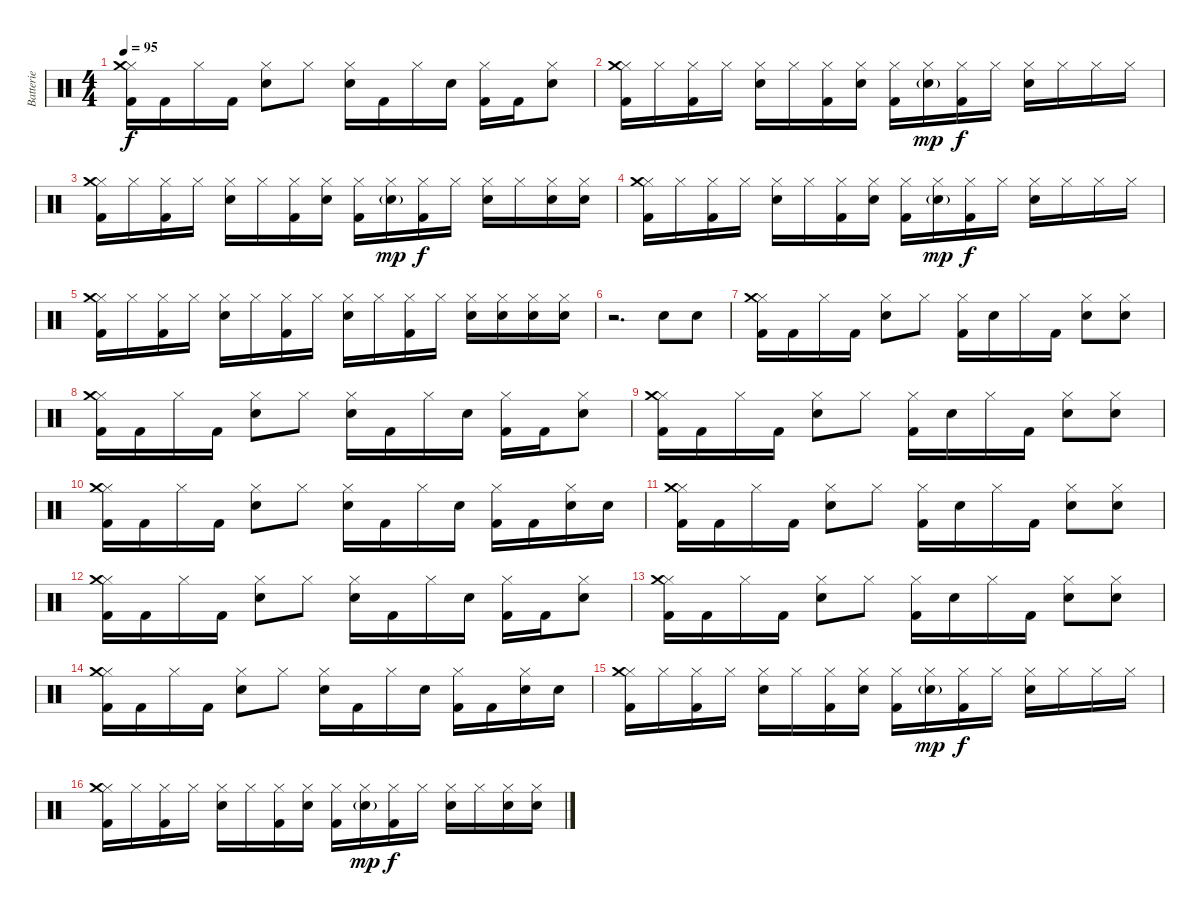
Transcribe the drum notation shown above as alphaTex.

\track ("Batterie" "Batterie") {instrument percussion}
\staff {score}
\articulation defaults
\ts (4 4)
\tempo 95
\clef neutral
\ks c
("Hi-Hat (closed)" "Crash medium (hit)" "Kick (hit) 2").16{dy f} "Kick (hit) 2".16 "Hi-Hat (closed)".16 "Kick (hit) 2".16 ("Hi-Hat (closed)" "Electric Snare (hit)").8 "Hi-Hat (closed)".8 ("Hi-Hat (closed)" "Electric Snare (hit)").16 "Kick (hit) 2".16 "Hi-Hat (closed)".16 "Electric Snare (hit)".16 ("Hi-Hat (closed)" "Kick (hit) 2").16 "Kick (hit) 2".16 ("Hi-Hat (closed)" "Electric Snare (hit)").8 |
("Hi-Hat (closed)" "Crash medium (hit)" "Kick (hit) 2").16 "Hi-Hat (closed)".16 ("Hi-Hat (closed)" "Kick (hit) 2").16 "Hi-Hat (closed)".16 ("Hi-Hat (closed)" "Electric Snare (hit)").16 "Hi-Hat (closed)".16 ("Hi-Hat (closed)" "Kick (hit) 2").16 ("Hi-Hat (closed)" "Electric Snare (hit)").16 ("Hi-Hat (closed)" "Kick (hit) 2").16 ("Hi-Hat (closed)" "Electric Snare (hit)"{g}).16{dy mp} ("Hi-Hat (closed)" "Kick (hit) 2").16{dy f} "Hi-Hat (closed)".16 ("Hi-Hat (closed)" "Electric Snare (hit)").16 "Hi-Hat (closed)".16 "Hi-Hat (closed)".16 "Hi-Hat (closed)".16 |
("Hi-Hat (closed)" "Crash medium (hit)" "Kick (hit) 2").16 "Hi-Hat (closed)".16 ("Hi-Hat (closed)" "Kick (hit) 2").16 "Hi-Hat (closed)".16 ("Hi-Hat (closed)" "Electric Snare (hit)").16 "Hi-Hat (closed)".16 ("Hi-Hat (closed)" "Kick (hit) 2").16 ("Hi-Hat (closed)" "Electric Snare (hit)").16 ("Hi-Hat (closed)" "Kick (hit) 2").16 ("Hi-Hat (closed)" "Electric Snare (hit)"{g}).16{dy mp} ("Hi-Hat (closed)" "Kick (hit) 2").16{dy f} "Hi-Hat (closed)".16 ("Hi-Hat (closed)" "Electric Snare (hit)").16 "Hi-Hat (closed)".16 ("Hi-Hat (closed)" "Electric Snare (hit)").16 ("Hi-Hat (closed)" "Electric Snare (hit)").16 |
("Hi-Hat (closed)" "Crash medium (hit)" "Kick (hit) 2").16 "Hi-Hat (closed)".16 ("Hi-Hat (closed)" "Kick (hit) 2").16 "Hi-Hat (closed)".16 ("Hi-Hat (closed)" "Electric Snare (hit)").16 "Hi-Hat (closed)".16 ("Hi-Hat (closed)" "Kick (hit) 2").16 ("Hi-Hat (closed)" "Electric Snare (hit)").16 ("Hi-Hat (closed)" "Kick (hit) 2").16 ("Hi-Hat (closed)" "Electric Snare (hit)"{g}).16{dy mp} ("Hi-Hat (closed)" "Kick (hit) 2").16{dy f} "Hi-Hat (closed)".16 ("Hi-Hat (closed)" "Electric Snare (hit)").16 "Hi-Hat (closed)".16 "Hi-Hat (closed)".16 "Hi-Hat (closed)".16 |
("Hi-Hat (closed)" "Crash medium (hit)" "Kick (hit) 2").16 "Hi-Hat (closed)".16 ("Hi-Hat (closed)" "Kick (hit) 2").16 "Hi-Hat (closed)".16 ("Hi-Hat (closed)" "Electric Snare (hit)").16 "Hi-Hat (closed)".16 ("Hi-Hat (closed)" "Kick (hit) 2").16 "Hi-Hat (closed)".16 ("Hi-Hat (closed)" "Electric Snare (hit)").16 "Hi-Hat (closed)".16 ("Hi-Hat (closed)" "Kick (hit) 2").16 "Hi-Hat (closed)".16 ("Hi-Hat (closed)" "Electric Snare (hit)").16 ("Hi-Hat (closed)" "Electric Snare (hit)").16 ("Hi-Hat (closed)" "Electric Snare (hit)").16 ("Hi-Hat (closed)" "Electric Snare (hit)").16 |
r.2{d} "Electric Snare (hit)".8 "Electric Snare (hit)".8 |
("Hi-Hat (closed)" "Crash medium (hit)" "Kick (hit) 2").16 "Kick (hit) 2".16 "Hi-Hat (closed)".16 "Kick (hit) 2".16 ("Hi-Hat (closed)" "Electric Snare (hit)").8 "Hi-Hat (closed)".8 ("Hi-Hat (closed)" "Kick (hit) 2").16 "Electric Snare (hit)".16 "Hi-Hat (closed)".16 "Kick (hit) 2".16 ("Hi-Hat (closed)" "Electric Snare (hit)").8 ("Hi-Hat (closed)" "Electric Snare (hit)").8 |
("Hi-Hat (closed)" "Crash medium (hit)" "Kick (hit) 2").16 "Kick (hit) 2".16 "Hi-Hat (closed)".16 "Kick (hit) 2".16 ("Hi-Hat (closed)" "Electric Snare (hit)").8 "Hi-Hat (closed)".8 ("Hi-Hat (closed)" "Electric Snare (hit)").16 "Kick (hit) 2".16 "Hi-Hat (closed)".16 "Electric Snare (hit)".16 ("Hi-Hat (closed)" "Kick (hit) 2").16 "Kick (hit) 2".16 ("Hi-Hat (closed)" "Electric Snare (hit)").8 |
("Hi-Hat (closed)" "Crash medium (hit)" "Kick (hit) 2").16 "Kick (hit) 2".16 "Hi-Hat (closed)".16 "Kick (hit) 2".16 ("Hi-Hat (closed)" "Electric Snare (hit)").8 "Hi-Hat (closed)".8 ("Hi-Hat (closed)" "Kick (hit) 2").16 "Electric Snare (hit)".16 "Hi-Hat (closed)".16 "Kick (hit) 2".16 ("Hi-Hat (closed)" "Electric Snare (hit)").8 ("Hi-Hat (closed)" "Electric Snare (hit)").8 |
("Hi-Hat (closed)" "Crash medium (hit)" "Kick (hit) 2").16 "Kick (hit) 2".16 "Hi-Hat (closed)".16 "Kick (hit) 2".16 ("Hi-Hat (closed)" "Electric Snare (hit)").8 "Hi-Hat (closed)".8 ("Hi-Hat (closed)" "Electric Snare (hit)").16 "Kick (hit) 2".16 "Hi-Hat (closed)".16 "Electric Snare (hit)".16 ("Hi-Hat (closed)" "Kick (hit) 2").16 "Kick (hit) 2".16 ("Hi-Hat (closed)" "Electric Snare (hit)").16 "Electric Snare (hit)".16 |
("Hi-Hat (closed)" "Crash medium (hit)" "Kick (hit) 2").16 "Kick (hit) 2".16 "Hi-Hat (closed)".16 "Kick (hit) 2".16 ("Hi-Hat (closed)" "Electric Snare (hit)").8 "Hi-Hat (closed)".8 ("Hi-Hat (closed)" "Kick (hit) 2").16 "Electric Snare (hit)".16 "Hi-Hat (closed)".16 "Kick (hit) 2".16 ("Hi-Hat (closed)" "Electric Snare (hit)").8 ("Hi-Hat (closed)" "Electric Snare (hit)").8 |
("Hi-Hat (closed)" "Crash medium (hit)" "Kick (hit) 2").16 "Kick (hit) 2".16 "Hi-Hat (closed)".16 "Kick (hit) 2".16 ("Hi-Hat (closed)" "Electric Snare (hit)").8 "Hi-Hat (closed)".8 ("Hi-Hat (closed)" "Electric Snare (hit)").16 "Kick (hit) 2".16 "Hi-Hat (closed)".16 "Electric Snare (hit)".16 ("Hi-Hat (closed)" "Kick (hit) 2").16 "Kick (hit) 2".16 ("Hi-Hat (closed)" "Electric Snare (hit)").8 |
("Hi-Hat (closed)" "Crash medium (hit)" "Kick (hit) 2").16 "Kick (hit) 2".16 "Hi-Hat (closed)".16 "Kick (hit) 2".16 ("Hi-Hat (closed)" "Electric Snare (hit)").8 "Hi-Hat (closed)".8 ("Hi-Hat (closed)" "Kick (hit) 2").16 "Electric Snare (hit)".16 "Hi-Hat (closed)".16 "Kick (hit) 2".16 ("Hi-Hat (closed)" "Electric Snare (hit)").8 ("Hi-Hat (closed)" "Electric Snare (hit)").8 |
("Hi-Hat (closed)" "Crash medium (hit)" "Kick (hit) 2").16 "Kick (hit) 2".16 "Hi-Hat (closed)".16 "Kick (hit) 2".16 ("Hi-Hat (closed)" "Electric Snare (hit)").8 "Hi-Hat (closed)".8 ("Hi-Hat (closed)" "Electric Snare (hit)").16 "Kick (hit) 2".16 "Hi-Hat (closed)".16 "Electric Snare (hit)".16 ("Hi-Hat (closed)" "Kick (hit) 2").16 "Kick (hit) 2".16 ("Hi-Hat (closed)" "Electric Snare (hit)").16 "Electric Snare (hit)".16 |
("Hi-Hat (closed)" "Crash medium (hit)" "Kick (hit) 2").16 "Hi-Hat (closed)".16 ("Hi-Hat (closed)" "Kick (hit) 2").16 "Hi-Hat (closed)".16 ("Hi-Hat (closed)" "Electric Snare (hit)").16 "Hi-Hat (closed)".16 ("Hi-Hat (closed)" "Kick (hit) 2").16 ("Hi-Hat (closed)" "Electric Snare (hit)").16 ("Hi-Hat (closed)" "Kick (hit) 2").16 ("Hi-Hat (closed)" "Electric Snare (hit)"{g}).16{dy mp} ("Hi-Hat (closed)" "Kick (hit) 2").16{dy f} "Hi-Hat (closed)".16 ("Hi-Hat (closed)" "Electric Snare (hit)").16 "Hi-Hat (closed)".16 "Hi-Hat (closed)".16 "Hi-Hat (closed)".16 |
("Hi-Hat (closed)" "Crash medium (hit)" "Kick (hit) 2").16 "Hi-Hat (closed)".16 ("Hi-Hat (closed)" "Kick (hit) 2").16 "Hi-Hat (closed)".16 ("Hi-Hat (closed)" "Electric Snare (hit)").16 "Hi-Hat (closed)".16 ("Hi-Hat (closed)" "Kick (hit) 2").16 ("Hi-Hat (closed)" "Electric Snare (hit)").16 ("Hi-Hat (closed)" "Kick (hit) 2").16 ("Hi-Hat (closed)" "Electric Snare (hit)"{g}).16{dy mp} ("Hi-Hat (closed)" "Kick (hit) 2").16{dy f} "Hi-Hat (closed)".16 ("Hi-Hat (closed)" "Electric Snare (hit)").16 "Hi-Hat (closed)".16 ("Hi-Hat (closed)" "Electric Snare (hit)").16 ("Hi-Hat (closed)" "Electric Snare (hit)").16
